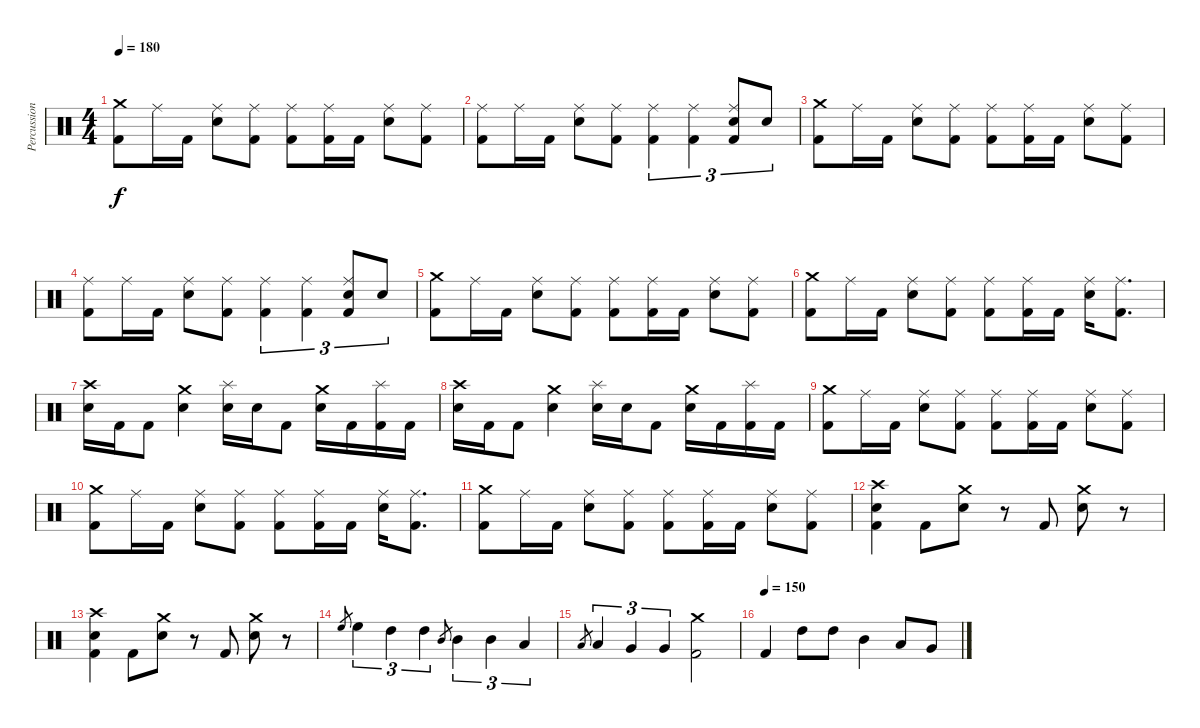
\track ("Percussions" "Percussion") {instrument percussion}
\staff {score}
\articulation defaults
\ts (4 4)
\tempo 180
\clef neutral
\ks c
("Crash medium (hit)" "Kick (hit) 2").8{dy f} "Ride (middle)".16 "Kick (hit) 2".16 ("Ride (middle)" "Electric Snare (hit)").8 ("Ride (middle)" "Kick (hit) 2").8 ("Ride (middle)" "Kick (hit) 2").8 ("Ride (middle)" "Kick (hit) 2").16 "Kick (hit) 2".16 ("Ride (middle)" "Electric Snare (hit)").8 ("Ride (middle)" "Kick (hit) 2").8 |
("Ride (middle)" "Kick (hit) 2").8 "Ride (middle)".16 "Kick (hit) 2".16 ("Ride (middle)" "Electric Snare (hit)").8 ("Ride (middle)" "Kick (hit) 2").8 ("Ride (middle)" "Kick (hit) 2").4{tu (3 2)} ("Ride (middle)" "Kick (hit) 2").4{tu (3 2)} ("Ride (middle)" "Electric Snare (hit)" "Kick (hit) 2").8{tu (3 2)} "Electric Snare (hit)".8{tu (3 2)} |
("Crash medium (hit)" "Kick (hit) 2").8 "Ride (middle)".16 "Kick (hit) 2".16 ("Ride (middle)" "Electric Snare (hit)").8 ("Ride (middle)" "Kick (hit) 2").8 ("Ride (middle)" "Kick (hit) 2").8 ("Ride (middle)" "Kick (hit) 2").16 "Kick (hit) 2".16 ("Ride (middle)" "Electric Snare (hit)").8 ("Ride (middle)" "Kick (hit) 2").8 |
("Ride (middle)" "Kick (hit) 2").8 "Ride (middle)".16 "Kick (hit) 2".16 ("Ride (middle)" "Electric Snare (hit)").8 ("Ride (middle)" "Kick (hit) 2").8 ("Ride (middle)" "Kick (hit) 2").4{tu (3 2)} ("Ride (middle)" "Kick (hit) 2").4{tu (3 2)} ("Ride (middle)" "Electric Snare (hit)" "Kick (hit) 2").8{tu (3 2)} "Electric Snare (hit)".8{tu (3 2)} |
("Crash medium (hit)" "Kick (hit) 2").8 "Ride (middle)".16 "Kick (hit) 2".16 ("Ride (middle)" "Electric Snare (hit)").8 ("Ride (middle)" "Kick (hit) 2").8 ("Ride (middle)" "Kick (hit) 2").8 ("Ride (middle)" "Kick (hit) 2").16 "Kick (hit) 2".16 ("Ride (middle)" "Electric Snare (hit)").8 ("Ride (middle)" "Kick (hit) 2").8 |
("Crash medium (hit)" "Kick (hit) 2").8 "Ride (middle)".16 "Kick (hit) 2".16 ("Ride (middle)" "Electric Snare (hit)").8 ("Ride (middle)" "Kick (hit) 2").8 ("Ride (middle)" "Kick (hit) 2").8 ("Ride (middle)" "Kick (hit) 2").16 "Kick (hit) 2".16 ("Ride (middle)" "Electric Snare (hit)").16 ("Ride (middle)" "Kick (hit) 2").8{d} |
("Crash high (hit)" "Electric Snare (hit)").16 "Kick (hit) 2".16 "Kick (hit) 2".8 ("Crash medium (hit)" "Electric Snare (hit)").4 ("Splash (hit)" "Electric Snare (hit)").16 "Electric Snare (hit)".16 "Kick (hit) 2".8 ("Crash medium (hit)" "Electric Snare (hit)").16 "Kick (hit) 2".16 ("Splash (hit)" "Kick (hit) 2").16 "Kick (hit) 2".16 |
("Crash high (hit)" "Electric Snare (hit)").16 "Kick (hit) 2".16 "Kick (hit) 2".8 ("Crash medium (hit)" "Electric Snare (hit)").4 ("Splash (hit)" "Electric Snare (hit)").16 "Electric Snare (hit)".16 "Kick (hit) 2".8 ("Crash medium (hit)" "Electric Snare (hit)").16 "Kick (hit) 2".16 ("Splash (hit)" "Kick (hit) 2").16 "Kick (hit) 2".16 |
("Crash medium (hit)" "Kick (hit) 2").8 "Ride (middle)".16 "Kick (hit) 2".16 ("Ride (middle)" "Electric Snare (hit)").8 ("Ride (middle)" "Kick (hit) 2").8 ("Ride (middle)" "Kick (hit) 2").8 ("Ride (middle)" "Kick (hit) 2").16 "Kick (hit) 2".16 ("Ride (middle)" "Electric Snare (hit)").8 ("Ride (middle)" "Kick (hit) 2").8 |
("Crash medium (hit)" "Kick (hit) 2").8 "Ride (middle)".16 "Kick (hit) 2".16 ("Ride (middle)" "Electric Snare (hit)").8 ("Ride (middle)" "Kick (hit) 2").8 ("Ride (middle)" "Kick (hit) 2").8 ("Ride (middle)" "Kick (hit) 2").16 "Kick (hit) 2".16 ("Ride (middle)" "Electric Snare (hit)").16 ("Ride (middle)" "Kick (hit) 2").8{d} |
("Crash medium (hit)" "Kick (hit) 2").8 "Ride (middle)".16 "Kick (hit) 2".16 ("Ride (middle)" "Electric Snare (hit)").8 ("Ride (middle)" "Kick (hit) 2").8 ("Ride (middle)" "Kick (hit) 2").8 ("Ride (middle)" "Kick (hit) 2").16 "Kick (hit) 2".16 ("Ride (middle)" "Electric Snare (hit)").8 ("Ride (middle)" "Kick (hit) 2").8 |
("Crash high (hit)" "Electric Snare (hit)" "Kick (hit) 2").4 "Kick (hit) 2".8 ("Crash medium (hit)" "Electric Snare (hit)").8 r.8 "Kick (hit) 2".8 ("Crash medium (hit)" "Electric Snare (hit)").8 r.8 |
("Crash high (hit)" "Electric Snare (hit)" "Kick (hit) 2").4 "Kick (hit) 2".8 ("Crash medium (hit)" "Electric Snare (hit)").8 r.8 "Kick (hit) 2".8 ("Crash medium (hit)" "Electric Snare (hit)").8 r.8 |
"High Floor Tom (hit)".8{gr} "High Floor Tom (hit)".4{tu (3 2)} "High Tom (hit)".4{tu (3 2)} "High Tom (hit)".4{tu (3 2)} "Mid Tom (hit)".8{gr} "Mid Tom (hit)".4{tu (3 2)} "Mid Tom (hit)".4{tu (3 2)} "Low Tom (hit)".4{tu (3 2)} |
"Low Tom (hit)".8{gr} "Low Tom (hit)".4{tu (3 2)} "Very Low Tom (hit)".4{tu (3 2)} "Very Low Tom (hit)".4{tu (3 2)} ("Crash medium (hit)" "Kick (hit) 2").2 |
\tempo (150)
"Kick (hit) 2".4 "High Tom (hit)".8 "High Tom (hit)".8 "Mid Tom (hit)".4 "Low Tom (hit)".8 "Very Low Tom (hit)".8
